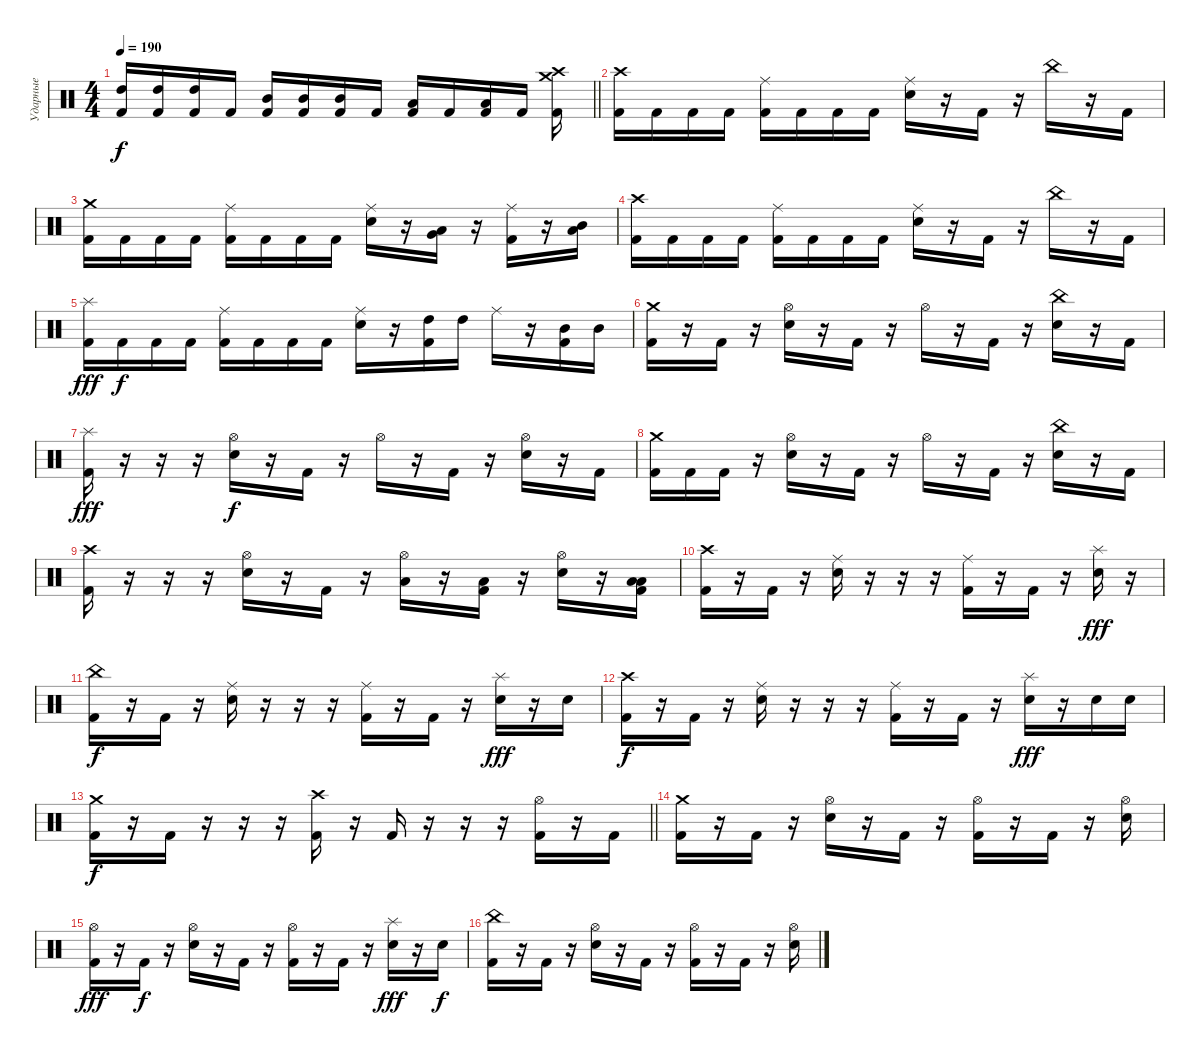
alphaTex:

\track ("Ударные" "Ударные") {instrument percussion}
\staff {score}
\articulation defaults
\ts (4 4)
\tempo 190
\clef neutral
\barLineRight lightlight
\ks c
("High Tom (hit)" "Kick (hit) 2").16{dy f} ("High Tom (hit)" "Kick (hit) 2").16 ("High Tom (hit)" "Kick (hit) 2").16 "Kick (hit) 2".16 ("Mid Tom (hit)" "Kick (hit) 2").16 ("Mid Tom (hit)" "Kick (hit) 2").16 ("Mid Tom (hit)" "Kick (hit) 2").16 "Kick (hit) 2".16 ("Low Tom (hit)" "Kick (hit) 2").16 "Kick (hit) 2".16 ("Low Tom (hit)" "Kick (hit) 2").16 "Kick (hit) 2".16 ("Crash medium (hit)" "Crash high (hit)" "Kick (hit) 2").16 |
("Crash high (hit)" "Kick (hit) 2").16 "Kick (hit) 2".16 "Kick (hit) 2".16 "Kick (hit) 2".16 ("Ride (middle)" "Kick (hit) 2").16 "Kick (hit) 2".16 "Kick (hit) 2".16 "Kick (hit) 2".16 ("Ride (middle)" "Snare (hit) 2").16 r.16 "Kick (hit) 2".16 r.16 "China (hit)".16 r.16 "Kick (hit) 2".16 |
("Crash medium (hit)" "Kick (hit) 2").16 "Kick (hit) 2".16 "Kick (hit) 2".16 "Kick (hit) 2".16 ("Ride (middle)" "Kick (hit) 2").16 "Kick (hit) 2".16 "Kick (hit) 2".16 "Kick (hit) 2".16 ("Ride (middle)" "Snare (hit) 2").16 r.16 ("Low Floor Tom (hit)" "Very Low Tom (hit)").16 r.16 ("Ride (middle)" "Kick (hit) 2").16 r.16 ("Mid Tom (hit)" "Low Tom (hit)").16 |
("Crash high (hit)" "Kick (hit) 2").16 "Kick (hit) 2".16 "Kick (hit) 2".16 "Kick (hit) 2".16 ("Ride (middle)" "Kick (hit) 2").16 "Kick (hit) 2".16 "Kick (hit) 2".16 "Kick (hit) 2".16 ("Ride (middle)" "Snare (hit) 2").16 r.16 "Kick (hit) 2".16 r.16 "China (hit)".16 r.16 "Kick (hit) 2".16 |
("Splash (hit)" "Kick (hit) 2").16{dy fff} "Kick (hit) 2".16{dy f} "Kick (hit) 2".16 "Kick (hit) 2".16 ("Ride (middle)" "Kick (hit) 2").16 "Kick (hit) 2".16 "Kick (hit) 2".16 "Kick (hit) 2".16 ("Ride (middle)" "Snare (hit) 2").16 r.16 ("High Tom (hit)" "Kick (hit) 2").16 "High Tom (hit)".16 "Ride (middle)".16 r.16 ("Mid Tom (hit)" "Kick (hit) 2").16 "Mid Tom (hit)".16 |
("Crash medium (hit)" "Kick (hit) 2").16 r.16 "Kick (hit) 2".16 r.16 ("Hi-Hat (open)" "Snare (hit) 2").16 r.16 "Kick (hit) 2".16 r.16 "Hi-Hat (open)".16 r.16 "Kick (hit) 2".16 r.16 ("China (hit)" "Snare (hit) 2").16 r.16 "Kick (hit) 2".16 |
("Splash (hit)" "Kick (hit) 2").16{dy fff} r.16 r.16 r.16 ("Hi-Hat (open)" "Snare (hit) 2").16{dy f} r.16 "Kick (hit) 2".16 r.16 "Hi-Hat (open)".16 r.16 "Kick (hit) 2".16 r.16 ("Hi-Hat (open)" "Snare (hit) 2").16 r.16 "Kick (hit) 2".16 |
("Crash medium (hit)" "Kick (hit) 2").16 "Kick (hit) 2".16 "Kick (hit) 2".16 r.16 ("Hi-Hat (open)" "Snare (hit) 2").16 r.16 "Kick (hit) 2".16 r.16 "Hi-Hat (open)".16 r.16 "Kick (hit) 2".16 r.16 ("China (hit)" "Snare (hit) 2").16 r.16 "Kick (hit) 2".16 |
("Crash high (hit)" "Kick (hit) 2").16 r.16 r.16 r.16 ("Hi-Hat (open)" "Snare (hit) 2").16 r.16 "Kick (hit) 2".16 r.16 ("Hi-Hat (open)" "Low Tom (hit)").16 r.16 ("Low Tom (hit)" "Kick (hit) 2").16 r.16 ("Hi-Hat (open)" "Snare (hit) 2").16 r.16 ("Low Tom (hit)" "Low Floor Tom (hit)" "Kick (hit) 2").16 |
("Crash high (hit)" "Kick (hit) 2").16 r.16 "Kick (hit) 2".16 r.16 ("Ride (middle)" "Snare (hit) 2").16 r.16 r.16 r.16 ("Ride (middle)" "Kick (hit) 2").16 r.16 "Kick (hit) 2".16 r.16 ("Splash (hit)" "Snare (hit) 2").16{dy fff} r.16 |
("China (hit)" "Kick (hit) 2").16{dy f} r.16 "Kick (hit) 2".16 r.16 ("Ride (middle)" "Snare (hit) 2").16 r.16 r.16 r.16 ("Ride (middle)" "Kick (hit) 2").16 r.16 "Kick (hit) 2".16 r.16 ("Splash (hit)" "Snare (hit) 2").16{dy fff} r.16 "Snare (hit) 2".16 |
("Crash high (hit)" "Kick (hit) 2").16{dy f} r.16 "Kick (hit) 2".16 r.16 ("Ride (middle)" "Snare (hit) 2").16 r.16 r.16 r.16 ("Ride (middle)" "Kick (hit) 2").16 r.16 "Kick (hit) 2".16 r.16 ("Splash (hit)" "Snare (hit) 2").16{dy fff} r.16 "Snare (hit) 2".16 "Snare (hit) 2".16 |
\barLineRight lightlight
("Crash medium (hit)" "Kick (hit) 2").16{dy f} r.16 "Kick (hit) 2".16 r.16 r.16 r.16 ("Crash high (hit)" "Kick (hit) 2").16 r.16 "Kick (hit) 2".16 r.16 r.16 r.16 ("Hi-Hat (open)" "Kick (hit) 2").16 r.16 "Kick (hit) 2".16 |
("Crash medium (hit)" "Kick (hit) 2").16 r.16 "Kick (hit) 2".16 r.16 ("Hi-Hat (open)" "Snare (hit) 2").16 r.16 "Kick (hit) 2".16 r.16 ("Hi-Hat (open)" "Kick (hit) 2").16 r.16 "Kick (hit) 2".16 r.16 ("Hi-Hat (open)" "Snare (hit) 2").16 |
("Hi-Hat (open)" "Kick (hit) 2").16{dy fff} r.16 "Kick (hit) 2".16{dy f} r.16 ("Hi-Hat (open)" "Snare (hit) 2").16 r.16 "Kick (hit) 2".16 r.16 ("Hi-Hat (open)" "Kick (hit) 2").16 r.16 "Kick (hit) 2".16 r.16 ("Splash (hit)" "Snare (hit) 2").16{dy fff} r.16 "Snare (hit) 2".16{dy f} |
("China (hit)" "Kick (hit) 2").16 r.16 "Kick (hit) 2".16 r.16 ("Hi-Hat (open)" "Snare (hit) 2").16 r.16 "Kick (hit) 2".16 r.16 ("Hi-Hat (open)" "Kick (hit) 2").16 r.16 "Kick (hit) 2".16 r.16 ("Hi-Hat (open)" "Snare (hit) 2").16
